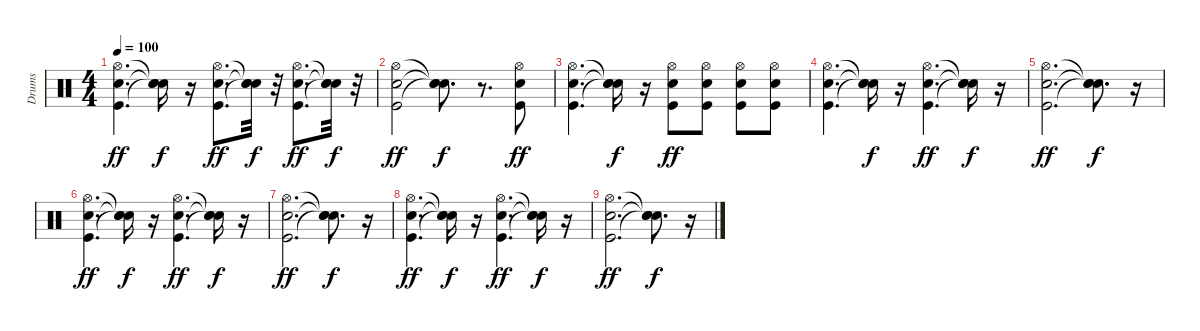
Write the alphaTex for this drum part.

\track ("Drums" "Drums") {instrument percussion}
\staff {score}
\articulation defaults
\ts (4 4)
\tempo 100
\clef neutral
\ks c
("Kick (hit)" "Electric Snare (hit)" "Hi-Hat (open)").4{d dy ff} ("Snare (hit)"{t} "Snare (hit)"{t} "Snare (hit)"{t}).16{dy f} r.16 ("Kick (hit)" "Electric Snare (hit)" "Hi-Hat (open)").8{d dy ff} ("Snare (hit)"{t} "Snare (hit)"{t} "Snare (hit)"{t}).32{dy f} r.32 ("Kick (hit)" "Electric Snare (hit)" "Hi-Hat (open)").8{d dy ff} ("Snare (hit)"{t} "Snare (hit)"{t} "Snare (hit)"{t}).32{dy f} r.32 |
("Kick (hit)" "Electric Snare (hit)" "Hi-Hat (open)").2{dy ff} ("Snare (hit)"{t} "Snare (hit)"{t} "Snare (hit)"{t}).8{d dy f} r.8{d} ("Kick (hit)" "Electric Snare (hit)" "Hi-Hat (open)").8{dy ff} |
("Kick (hit)" "Electric Snare (hit)" "Hi-Hat (open)").4{d} ("Snare (hit)"{t} "Snare (hit)"{t} "Snare (hit)"{t}).16{dy f} r.16 ("Kick (hit)" "Electric Snare (hit)" "Hi-Hat (open)").8{dy ff} ("Kick (hit)" "Electric Snare (hit)" "Hi-Hat (open)").8 ("Kick (hit)" "Electric Snare (hit)" "Hi-Hat (open)").8 ("Kick (hit)" "Electric Snare (hit)" "Hi-Hat (open)").8 |
("Kick (hit)" "Electric Snare (hit)" "Hi-Hat (open)").4{d} ("Snare (hit)"{t} "Snare (hit)"{t} "Snare (hit)"{t}).16{dy f} r.16 ("Kick (hit)" "Electric Snare (hit)" "Hi-Hat (open)").4{d dy ff} ("Snare (hit)"{t} "Snare (hit)"{t} "Snare (hit)"{t}).16{dy f} r.16 |
("Kick (hit)" "Electric Snare (hit)" "Hi-Hat (open)").2{d dy ff} ("Snare (hit)"{t} "Snare (hit)"{t} "Snare (hit)"{t}).8{d dy f} r.16 |
("Kick (hit)" "Electric Snare (hit)" "Hi-Hat (open)").4{d dy ff} ("Snare (hit)"{t} "Snare (hit)"{t} "Snare (hit)"{t}).16{dy f} r.16 ("Kick (hit)" "Electric Snare (hit)" "Hi-Hat (open)").4{d dy ff} ("Snare (hit)"{t} "Snare (hit)"{t} "Snare (hit)"{t}).16{dy f} r.16 |
("Kick (hit)" "Electric Snare (hit)" "Hi-Hat (open)").2{d dy ff} ("Snare (hit)"{t} "Snare (hit)"{t} "Snare (hit)"{t}).8{d dy f} r.16 |
("Kick (hit)" "Electric Snare (hit)" "Hi-Hat (open)").4{d dy ff} ("Snare (hit)"{t} "Snare (hit)"{t} "Snare (hit)"{t}).16{dy f} r.16 ("Kick (hit)" "Electric Snare (hit)" "Hi-Hat (open)").4{d dy ff} ("Snare (hit)"{t} "Snare (hit)"{t} "Snare (hit)"{t}).16{dy f} r.16 |
("Kick (hit)" "Electric Snare (hit)" "Hi-Hat (open)").2{d dy ff} ("Snare (hit)"{t} "Snare (hit)"{t} "Snare (hit)"{t}).8{d dy f} r.16
